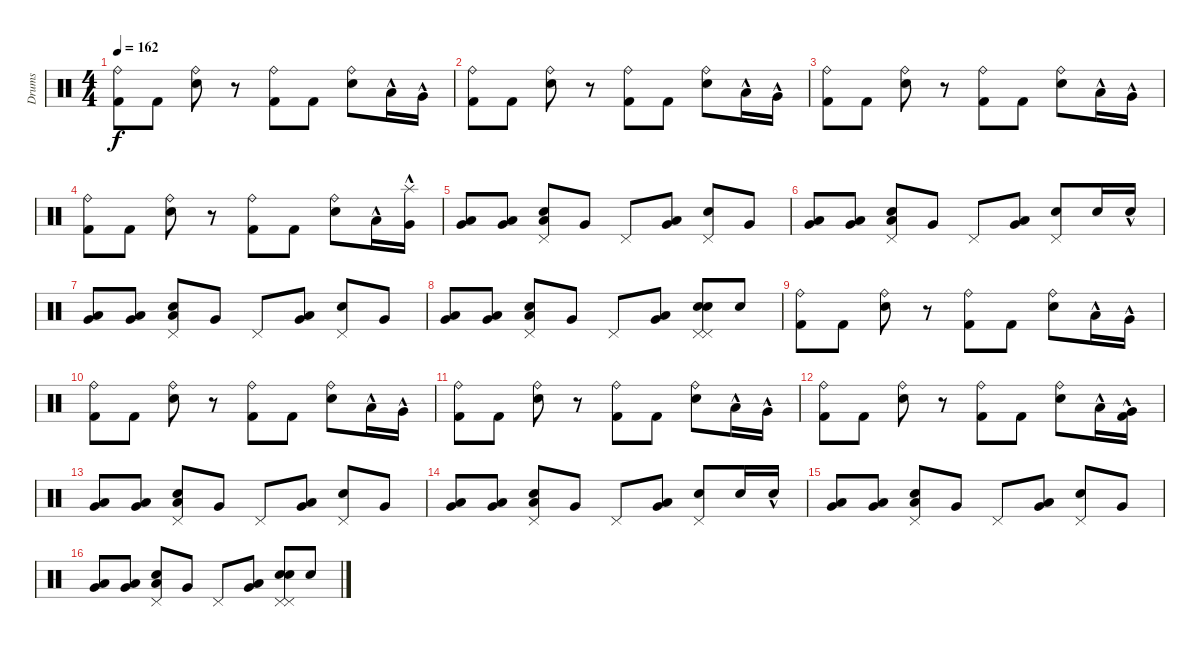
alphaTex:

\track ("Drums" "Drums") {instrument percussion}
\staff {score}
\articulation defaults
\ts (4 4)
\tempo 162
\clef neutral
\ks c
("Ride (bell)" "Kick (hit) 2").8{dy f} "Kick (hit) 2".8 ("Ride (bell)" "Electric Snare (hit)").8 r.8 ("Ride (bell)" "Kick (hit) 2").8 "Kick (hit) 2".8 ("Ride (bell)" "Electric Snare (hit)").8 "Low Tom (hit)"{hac}.16 "Very Low Tom (hit)"{hac}.16 |
("Ride (bell)" "Kick (hit) 2").8 "Kick (hit) 2".8 ("Ride (bell)" "Electric Snare (hit)").8 r.8 ("Ride (bell)" "Kick (hit) 2").8 "Kick (hit) 2".8 ("Ride (bell)" "Electric Snare (hit)").8 "Low Tom (hit)"{hac}.16 "Very Low Tom (hit)"{hac}.16 |
("Ride (bell)" "Kick (hit) 2").8 "Kick (hit) 2".8 ("Ride (bell)" "Electric Snare (hit)").8 r.8 ("Ride (bell)" "Kick (hit) 2").8 "Kick (hit) 2".8 ("Ride (bell)" "Electric Snare (hit)").8 "Low Tom (hit)"{hac}.16 "Very Low Tom (hit)"{hac}.16 |
("Ride (bell)" "Kick (hit) 2").8 "Kick (hit) 2".8 ("Ride (bell)" "Electric Snare (hit)").8 r.8 ("Ride (bell)" "Kick (hit) 2").8 "Kick (hit) 2".8 ("Ride (bell)" "Electric Snare (hit)").8 "Low Tom (hit)"{hac}.16 ("Very Low Tom (hit)" "Splash (hit)"{hac}).16 |
("Very Low Tom (hit)" "Low Floor Tom (hit)").8 ("Very Low Tom (hit)" "Low Floor Tom (hit)").8 ("Electric Snare (hit)" "Pedal Hi-Hat (hit)" "Low Floor Tom (hit)").8 "Very Low Tom (hit)".8 "Pedal Hi-Hat (hit)".8 ("Very Low Tom (hit)" "Low Floor Tom (hit)").8 ("Electric Snare (hit)" "Pedal Hi-Hat (hit)").8 "Very Low Tom (hit)".8 |
("Very Low Tom (hit)" "Low Floor Tom (hit)").8 ("Very Low Tom (hit)" "Low Floor Tom (hit)").8 ("Electric Snare (hit)" "Pedal Hi-Hat (hit)" "Low Floor Tom (hit)").8 "Very Low Tom (hit)".8 "Pedal Hi-Hat (hit)".8 ("Very Low Tom (hit)" "Low Floor Tom (hit)").8 ("Electric Snare (hit)" "Pedal Hi-Hat (hit)").8 "Electric Snare (hit)".16 "Electric Snare (hit)"{hac}.16 |
("Very Low Tom (hit)" "Low Floor Tom (hit)").8 ("Very Low Tom (hit)" "Low Floor Tom (hit)").8 ("Electric Snare (hit)" "Pedal Hi-Hat (hit)" "Low Floor Tom (hit)").8 "Very Low Tom (hit)".8 "Pedal Hi-Hat (hit)".8 ("Very Low Tom (hit)" "Low Floor Tom (hit)").8 ("Electric Snare (hit)" "Pedal Hi-Hat (hit)").8 "Very Low Tom (hit)".8 |
("Very Low Tom (hit)" "Low Floor Tom (hit)").8 ("Very Low Tom (hit)" "Low Floor Tom (hit)").8 ("Electric Snare (hit)" "Pedal Hi-Hat (hit)" "Low Floor Tom (hit)").8 "Very Low Tom (hit)".8 "Pedal Hi-Hat (hit)".8 ("Very Low Tom (hit)" "Low Floor Tom (hit)").8 ("Electric Snare (hit)" "Pedal Hi-Hat (hit)" "Electric Snare (hit)" "Pedal Hi-Hat (hit)").8 "Electric Snare (hit)".8 |
("Ride (bell)" "Kick (hit) 2").8 "Kick (hit) 2".8 ("Ride (bell)" "Electric Snare (hit)").8 r.8 ("Ride (bell)" "Kick (hit) 2").8 "Kick (hit) 2".8 ("Ride (bell)" "Electric Snare (hit)").8 "Low Tom (hit)"{hac}.16 "Very Low Tom (hit)"{hac}.16 |
("Ride (bell)" "Kick (hit) 2").8 "Kick (hit) 2".8 ("Ride (bell)" "Electric Snare (hit)").8 r.8 ("Ride (bell)" "Kick (hit) 2").8 "Kick (hit) 2".8 ("Ride (bell)" "Electric Snare (hit)").8 "Low Tom (hit)"{hac}.16 "Very Low Tom (hit)"{hac}.16 |
("Ride (bell)" "Kick (hit) 2").8 "Kick (hit) 2".8 ("Ride (bell)" "Electric Snare (hit)").8 r.8 ("Ride (bell)" "Kick (hit) 2").8 "Kick (hit) 2".8 ("Ride (bell)" "Electric Snare (hit)").8 "Low Tom (hit)"{hac}.16 "Very Low Tom (hit)"{hac}.16 |
("Ride (bell)" "Kick (hit) 2").8 "Kick (hit) 2".8 ("Ride (bell)" "Electric Snare (hit)").8 r.8 ("Ride (bell)" "Kick (hit) 2").8 "Kick (hit) 2".8 ("Ride (bell)" "Electric Snare (hit)").8 "Low Tom (hit)"{hac}.16 ("Very Low Tom (hit)" "Kick (hit) 2"{hac}).16 |
("Very Low Tom (hit)" "Low Floor Tom (hit)").8 ("Very Low Tom (hit)" "Low Floor Tom (hit)").8 ("Electric Snare (hit)" "Pedal Hi-Hat (hit)" "Low Floor Tom (hit)").8 "Very Low Tom (hit)".8 "Pedal Hi-Hat (hit)".8 ("Very Low Tom (hit)" "Low Floor Tom (hit)").8 ("Electric Snare (hit)" "Pedal Hi-Hat (hit)").8 "Very Low Tom (hit)".8 |
("Very Low Tom (hit)" "Low Floor Tom (hit)").8 ("Very Low Tom (hit)" "Low Floor Tom (hit)").8 ("Electric Snare (hit)" "Pedal Hi-Hat (hit)" "Low Floor Tom (hit)").8 "Very Low Tom (hit)".8 "Pedal Hi-Hat (hit)".8 ("Very Low Tom (hit)" "Low Floor Tom (hit)").8 ("Electric Snare (hit)" "Pedal Hi-Hat (hit)").8 "Electric Snare (hit)".16 "Electric Snare (hit)"{hac}.16 |
("Very Low Tom (hit)" "Low Floor Tom (hit)").8 ("Very Low Tom (hit)" "Low Floor Tom (hit)").8 ("Electric Snare (hit)" "Pedal Hi-Hat (hit)" "Low Floor Tom (hit)").8 "Very Low Tom (hit)".8 "Pedal Hi-Hat (hit)".8 ("Very Low Tom (hit)" "Low Floor Tom (hit)").8 ("Electric Snare (hit)" "Pedal Hi-Hat (hit)").8 "Very Low Tom (hit)".8 |
("Very Low Tom (hit)" "Low Floor Tom (hit)").8 ("Very Low Tom (hit)" "Low Floor Tom (hit)").8 ("Electric Snare (hit)" "Pedal Hi-Hat (hit)" "Low Floor Tom (hit)").8 "Very Low Tom (hit)".8 "Pedal Hi-Hat (hit)".8 ("Very Low Tom (hit)" "Low Floor Tom (hit)").8 ("Electric Snare (hit)" "Pedal Hi-Hat (hit)" "Electric Snare (hit)" "Pedal Hi-Hat (hit)").8 "Electric Snare (hit)".8
